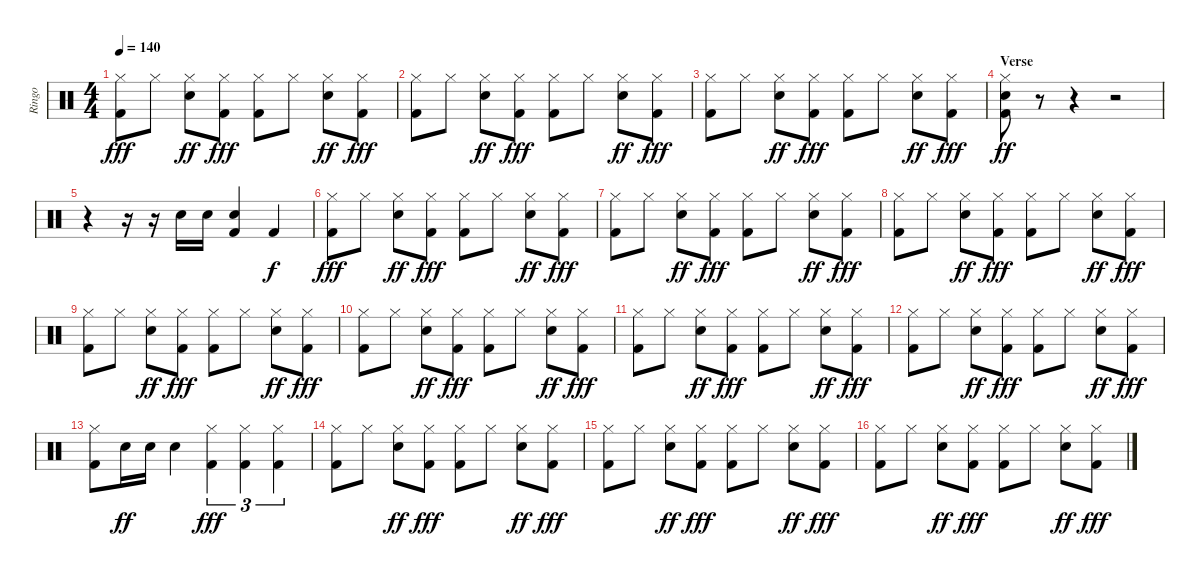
\track ("Ringo" "Ringo") {instrument percussion}
\staff {score}
\articulation defaults
\ts (4 4)
\tempo 140
\clef neutral
\ks c
("Hi-Hat (closed)" "Kick (hit) 2").8{dy fff} "Hi-Hat (closed)".8 ("Hi-Hat (closed)" "Snare (hit) 2").8{dy ff} ("Hi-Hat (closed)" "Kick (hit) 2").8{dy fff} ("Hi-Hat (closed)" "Kick (hit) 2").8 "Hi-Hat (closed)".8 ("Hi-Hat (closed)" "Snare (hit) 2").8{dy ff} ("Hi-Hat (closed)" "Kick (hit) 2").8{dy fff} |
("Hi-Hat (closed)" "Kick (hit) 2").8 "Hi-Hat (closed)".8 ("Hi-Hat (closed)" "Snare (hit) 2").8{dy ff} ("Hi-Hat (closed)" "Kick (hit) 2").8{dy fff} ("Hi-Hat (closed)" "Kick (hit) 2").8 "Hi-Hat (closed)".8 ("Hi-Hat (closed)" "Snare (hit) 2").8{dy ff} ("Hi-Hat (closed)" "Kick (hit) 2").8{dy fff} |
("Hi-Hat (closed)" "Kick (hit) 2").8 "Hi-Hat (closed)".8 ("Hi-Hat (closed)" "Snare (hit) 2").8{dy ff} ("Hi-Hat (closed)" "Kick (hit) 2").8{dy fff} ("Hi-Hat (closed)" "Kick (hit) 2").8 "Hi-Hat (closed)".8 ("Hi-Hat (closed)" "Snare (hit) 2").8{dy ff} ("Hi-Hat (closed)" "Kick (hit) 2").8{dy fff} |
\section ("" "Verse")
("Hi-Hat (closed)" "Snare (hit) 2" "Kick (hit) 2").8{dy ff} r.8 r.4 r.2 |
r.4 r.16 r.16 "Snare (hit) 2".16 "Snare (hit) 2".16 ("Snare (hit) 2" "Kick (hit) 2").4 "Kick (hit) 2".4{dy f} |
("Hi-Hat (closed)" "Kick (hit) 2").8{dy fff} "Hi-Hat (closed)".8 ("Hi-Hat (closed)" "Snare (hit) 2").8{dy ff} ("Hi-Hat (closed)" "Kick (hit) 2").8{dy fff} ("Hi-Hat (closed)" "Kick (hit) 2").8 "Hi-Hat (closed)".8 ("Hi-Hat (closed)" "Snare (hit) 2").8{dy ff} ("Hi-Hat (closed)" "Kick (hit) 2").8{dy fff} |
("Hi-Hat (closed)" "Kick (hit) 2").8 "Hi-Hat (closed)".8 ("Hi-Hat (closed)" "Snare (hit) 2").8{dy ff} ("Hi-Hat (closed)" "Kick (hit) 2").8{dy fff} ("Hi-Hat (closed)" "Kick (hit) 2").8 "Hi-Hat (closed)".8 ("Hi-Hat (closed)" "Snare (hit) 2").8{dy ff} ("Hi-Hat (closed)" "Kick (hit) 2").8{dy fff} |
("Hi-Hat (closed)" "Kick (hit) 2").8 "Hi-Hat (closed)".8 ("Hi-Hat (closed)" "Snare (hit) 2").8{dy ff} ("Hi-Hat (closed)" "Kick (hit) 2").8{dy fff} ("Hi-Hat (closed)" "Kick (hit) 2").8 "Hi-Hat (closed)".8 ("Hi-Hat (closed)" "Snare (hit) 2").8{dy ff} ("Hi-Hat (closed)" "Kick (hit) 2").8{dy fff} |
("Hi-Hat (closed)" "Kick (hit) 2").8 "Hi-Hat (closed)".8 ("Hi-Hat (closed)" "Snare (hit) 2").8{dy ff} ("Hi-Hat (closed)" "Kick (hit) 2").8{dy fff} ("Hi-Hat (closed)" "Kick (hit) 2").8 "Hi-Hat (closed)".8 ("Hi-Hat (closed)" "Snare (hit) 2").8{dy ff} ("Hi-Hat (closed)" "Kick (hit) 2").8{dy fff} |
("Hi-Hat (closed)" "Kick (hit) 2").8 "Hi-Hat (closed)".8 ("Hi-Hat (closed)" "Snare (hit) 2").8{dy ff} ("Hi-Hat (closed)" "Kick (hit) 2").8{dy fff} ("Hi-Hat (closed)" "Kick (hit) 2").8 "Hi-Hat (closed)".8 ("Hi-Hat (closed)" "Snare (hit) 2").8{dy ff} ("Hi-Hat (closed)" "Kick (hit) 2").8{dy fff} |
("Hi-Hat (closed)" "Kick (hit) 2").8 "Hi-Hat (closed)".8 ("Hi-Hat (closed)" "Snare (hit) 2").8{dy ff} ("Hi-Hat (closed)" "Kick (hit) 2").8{dy fff} ("Hi-Hat (closed)" "Kick (hit) 2").8 "Hi-Hat (closed)".8 ("Hi-Hat (closed)" "Snare (hit) 2").8{dy ff} ("Hi-Hat (closed)" "Kick (hit) 2").8{dy fff} |
("Hi-Hat (closed)" "Kick (hit) 2").8 "Hi-Hat (closed)".8 ("Hi-Hat (closed)" "Snare (hit) 2").8{dy ff} ("Hi-Hat (closed)" "Kick (hit) 2").8{dy fff} ("Hi-Hat (closed)" "Kick (hit) 2").8 "Hi-Hat (closed)".8 ("Hi-Hat (closed)" "Snare (hit) 2").8{dy ff} ("Hi-Hat (closed)" "Kick (hit) 2").8{dy fff} |
("Hi-Hat (closed)" "Kick (hit) 2").8 "Snare (hit) 2".16{dy ff} "Snare (hit) 2".16 "Snare (hit) 2".4 ("Hi-Hat (closed)" "Kick (hit) 2").4{tu (3 2) dy fff} ("Hi-Hat (closed)" "Kick (hit) 2").4{tu (3 2)} ("Hi-Hat (closed)" "Kick (hit) 2").4{tu (3 2)} |
("Hi-Hat (closed)" "Kick (hit) 2").8 "Hi-Hat (closed)".8 ("Hi-Hat (closed)" "Snare (hit) 2").8{dy ff} ("Hi-Hat (closed)" "Kick (hit) 2").8{dy fff} ("Hi-Hat (closed)" "Kick (hit) 2").8 "Hi-Hat (closed)".8 ("Hi-Hat (closed)" "Snare (hit) 2").8{dy ff} ("Hi-Hat (closed)" "Kick (hit) 2").8{dy fff} |
("Hi-Hat (closed)" "Kick (hit) 2").8 "Hi-Hat (closed)".8 ("Hi-Hat (closed)" "Snare (hit) 2").8{dy ff} ("Hi-Hat (closed)" "Kick (hit) 2").8{dy fff} ("Hi-Hat (closed)" "Kick (hit) 2").8 "Hi-Hat (closed)".8 ("Hi-Hat (closed)" "Snare (hit) 2").8{dy ff} ("Hi-Hat (closed)" "Kick (hit) 2").8{dy fff} |
("Hi-Hat (closed)" "Kick (hit) 2").8 "Hi-Hat (closed)".8 ("Hi-Hat (closed)" "Snare (hit) 2").8{dy ff} ("Hi-Hat (closed)" "Kick (hit) 2").8{dy fff} ("Hi-Hat (closed)" "Kick (hit) 2").8 "Hi-Hat (closed)".8 ("Hi-Hat (closed)" "Snare (hit) 2").8{dy ff} ("Hi-Hat (closed)" "Kick (hit) 2").8{dy fff}
